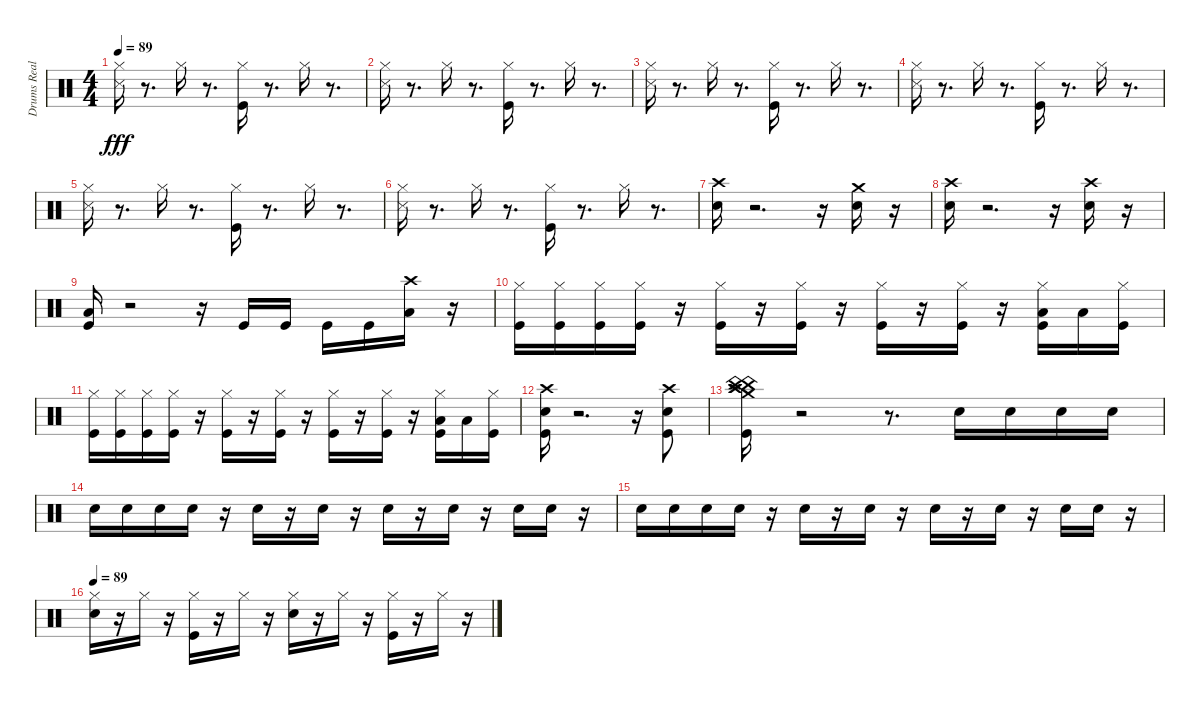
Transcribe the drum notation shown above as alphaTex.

\track ("Drums Real" "Drums Real") {instrument percussion}
\staff {score}
\articulation defaults
\ts (4 4)
\tempo 89
\clef neutral
\ks c
("Snare (side stick) 3" "Hi-Hat (closed)").16{dy fff} r.8{d} "Hi-Hat (closed)".16 r.8{d} ("Kick (hit)" "Hi-Hat (closed)").16 r.8{d} "Hi-Hat (closed)".16 r.8{d} |
("Snare (side stick) 3" "Hi-Hat (closed)").16 r.8{d} "Hi-Hat (closed)".16 r.8{d} ("Kick (hit)" "Hi-Hat (closed)").16 r.8{d} "Hi-Hat (closed)".16 r.8{d} |
("Snare (side stick) 3" "Hi-Hat (closed)").16 r.8{d} "Hi-Hat (closed)".16 r.8{d} ("Kick (hit)" "Hi-Hat (closed)").16 r.8{d} "Hi-Hat (closed)".16 r.8{d} |
("Snare (side stick) 3" "Hi-Hat (closed)").16 r.8{d} "Hi-Hat (closed)".16 r.8{d} ("Kick (hit)" "Hi-Hat (closed)").16 r.8{d} "Hi-Hat (closed)".16 r.8{d} |
("Snare (side stick) 3" "Hi-Hat (closed)").16 r.8{d} "Hi-Hat (closed)".16 r.8{d} ("Kick (hit)" "Hi-Hat (closed)").16 r.8{d} "Hi-Hat (closed)".16 r.8{d} |
("Snare (side stick) 3" "Hi-Hat (closed)").16 r.8{d} "Hi-Hat (closed)".16 r.8{d} ("Kick (hit)" "Hi-Hat (closed)").16 r.8{d} "Hi-Hat (closed)".16 r.8{d} |
("Electric Snare (hit)" "Crash high (hit)").16 r.2{d} r.16 ("Crash medium (hit)" "Electric Snare (hit)").16 r.16 |
("Electric Snare (hit)" "Crash high (hit)").16 r.2{d} r.16 ("Crash high (hit)" "Electric Snare (hit)").16 r.16 |
("Kick (hit)" "Low Tom (hit)").16 r.2 r.16 "Kick (hit)".16 "Kick (hit)".16 "Kick (hit)".16 "Kick (hit)".16 ("Low Tom (hit)" "Crash high (hit)").16 r.16 |
("Hi-Hat (closed)" "Kick (hit)").16 ("Hi-Hat (closed)" "Kick (hit)").16 ("Hi-Hat (closed)" "Kick (hit)").16 ("Hi-Hat (closed)" "Kick (hit)").16 r.16 ("Kick (hit)" "Hi-Hat (closed)").16 r.16 ("Kick (hit)" "Hi-Hat (closed)").16 r.16 ("Kick (hit)" "Hi-Hat (closed)").16 r.16 ("Kick (hit)" "Hi-Hat (closed)").16 r.16 ("Hi-Hat (closed)" "Kick (hit)" "Low Tom (hit)").16 "Low Tom (hit)".16 ("Kick (hit)" "Hi-Hat (closed)").16 |
("Kick (hit)" "Hi-Hat (closed)").16 ("Kick (hit)" "Hi-Hat (closed)").16 ("Kick (hit)" "Hi-Hat (closed)").16 ("Kick (hit)" "Hi-Hat (closed)").16 r.16 ("Kick (hit)" "Hi-Hat (closed)").16 r.16 ("Kick (hit)" "Hi-Hat (closed)").16 r.16 ("Kick (hit)" "Hi-Hat (closed)").16 r.16 ("Kick (hit)" "Hi-Hat (closed)").16 r.16 ("Kick (hit)" "Hi-Hat (closed)" "Low Tom (hit)").16 "Low Tom (hit)".16 ("Kick (hit)" "Hi-Hat (closed)").16 |
("Electric Snare (hit)" "Kick (hit)" "Crash high (hit)").16 r.2{d} r.16 ("Kick (hit)" "Electric Snare (hit)" "Crash high (hit)").8 |
("Crash high (hit)" "Crash high (hit)" "China (hit)" "China (hit)" "Crash medium (hit)" "Kick (hit)").16 r.2 r.8{d} "Electric Snare (hit)".16 "Electric Snare (hit)".16 "Electric Snare (hit)".16 "Electric Snare (hit)".16 |
"Electric Snare (hit)".16 "Electric Snare (hit)".16 "Electric Snare (hit)".16 "Electric Snare (hit)".16 r.16 "Electric Snare (hit)".16 r.16 "Electric Snare (hit)".16 r.16 "Electric Snare (hit)".16 r.16 "Electric Snare (hit)".16 r.16 "Electric Snare (hit)".16 "Electric Snare (hit)".16 r.16 |
"Electric Snare (hit)".16 "Electric Snare (hit)".16 "Electric Snare (hit)".16 "Electric Snare (hit)".16 r.16 "Electric Snare (hit)".16 r.16 "Electric Snare (hit)".16 r.16 "Electric Snare (hit)".16 r.16 "Electric Snare (hit)".16 r.16 "Electric Snare (hit)".16 "Electric Snare (hit)".16 r.16 |
\tempo 89
("Electric Snare (hit)" "Hi-Hat (closed)").16 r.16 "Hi-Hat (closed)".16 r.16 ("Kick (hit)" "Hi-Hat (closed)").16 r.16 "Hi-Hat (closed)".16 r.16 ("Electric Snare (hit)" "Hi-Hat (closed)").16 r.16 "Hi-Hat (closed)".16 r.16 ("Kick (hit)" "Hi-Hat (closed)").16 r.16 "Hi-Hat (closed)".16 r.16
